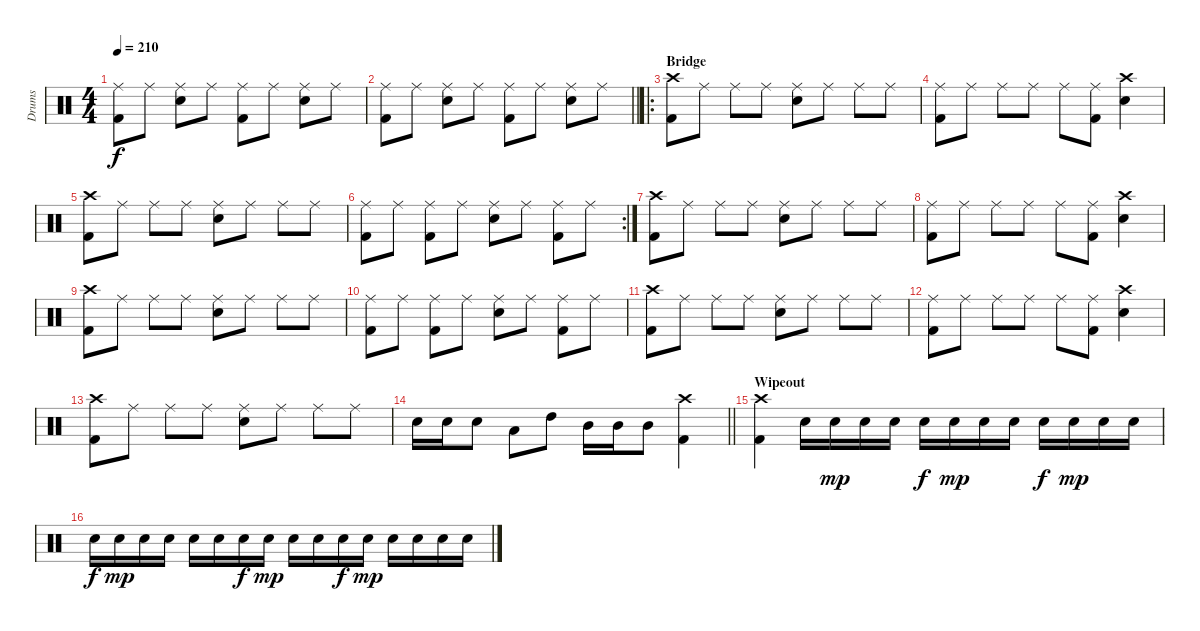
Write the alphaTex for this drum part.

\track ("Drums" "Drums") {instrument percussion}
\staff {score}
\articulation defaults
\ts (4 4)
\tempo 210
\clef neutral
\ks c
("Kick (hit) 2" "Ride (middle)").8{dy f} "Ride (middle)".8 ("Electric Snare (hit)" "Ride (middle)").8 "Ride (middle)".8 ("Kick (hit) 2" "Ride (middle)").8 "Ride (middle)".8 ("Electric Snare (hit)" "Ride (middle)").8 "Ride (middle)".8 |
\barLineRight lightlight
("Kick (hit) 2" "Ride (middle)").8 "Ride (middle)".8 ("Electric Snare (hit)" "Ride (middle)").8 "Ride (middle)".8 ("Kick (hit) 2" "Ride (middle)").8 "Ride (middle)".8 ("Electric Snare (hit)" "Ride (middle)").8 "Ride (middle)".8 |
\ro
\section ("" "Bridge")
("Kick (hit) 2" "Crash high (hit)").8 "Ride (middle)".8 "Ride (middle)".8 "Ride (middle)".8 ("Electric Snare (hit)" "Ride (middle)").8 "Ride (middle)".8 "Ride (middle)".8 "Ride (middle)".8 |
("Kick (hit) 2" "Ride (middle)").8 "Ride (middle)".8 "Ride (middle)".8 "Ride (middle)".8 "Ride (middle)".8 ("Kick (hit) 2" "Ride (middle)").8 ("Electric Snare (hit)" "Crash high (hit)").4 |
("Kick (hit) 2" "Crash high (hit)").8 "Ride (middle)".8 "Ride (middle)".8 "Ride (middle)".8 ("Electric Snare (hit)" "Ride (middle)").8 "Ride (middle)".8 "Ride (middle)".8 "Ride (middle)".8 |
\rc 2
("Kick (hit) 2" "Ride (middle)").8 "Ride (middle)".8 ("Kick (hit) 2" "Ride (middle)").8 "Ride (middle)".8 ("Electric Snare (hit)" "Ride (middle)").8 "Ride (middle)".8 ("Kick (hit) 2" "Ride (middle)").8 "Ride (middle)".8 |
("Kick (hit) 2" "Crash high (hit)").8 "Ride (middle)".8 "Ride (middle)".8 "Ride (middle)".8 ("Electric Snare (hit)" "Ride (middle)").8 "Ride (middle)".8 "Ride (middle)".8 "Ride (middle)".8 |
("Kick (hit) 2" "Ride (middle)").8 "Ride (middle)".8 "Ride (middle)".8 "Ride (middle)".8 "Ride (middle)".8 ("Kick (hit) 2" "Ride (middle)").8 ("Electric Snare (hit)" "Crash high (hit)").4 |
("Kick (hit) 2" "Crash high (hit)").8 "Ride (middle)".8 "Ride (middle)".8 "Ride (middle)".8 ("Electric Snare (hit)" "Ride (middle)").8 "Ride (middle)".8 "Ride (middle)".8 "Ride (middle)".8 |
("Kick (hit) 2" "Ride (middle)").8 "Ride (middle)".8 ("Kick (hit) 2" "Ride (middle)").8 "Ride (middle)".8 ("Electric Snare (hit)" "Ride (middle)").8 "Ride (middle)".8 ("Kick (hit) 2" "Ride (middle)").8 "Ride (middle)".8 |
("Kick (hit) 2" "Crash high (hit)").8 "Ride (middle)".8 "Ride (middle)".8 "Ride (middle)".8 ("Electric Snare (hit)" "Ride (middle)").8 "Ride (middle)".8 "Ride (middle)".8 "Ride (middle)".8 |
("Kick (hit) 2" "Ride (middle)").8 "Ride (middle)".8 "Ride (middle)".8 "Ride (middle)".8 "Ride (middle)".8 ("Kick (hit) 2" "Ride (middle)").8 ("Electric Snare (hit)" "Crash high (hit)").4 |
("Kick (hit) 2" "Crash high (hit)").8 "Ride (middle)".8 "Ride (middle)".8 "Ride (middle)".8 ("Electric Snare (hit)" "Ride (middle)").8 "Ride (middle)".8 "Ride (middle)".8 "Ride (middle)".8 |
\barLineRight lightlight "Electric Snare (hit)".16 "Electric Snare (hit)".16 "Electric Snare (hit)".8 "Low Tom (hit)".8 "High Tom (hit)".8 "Mid Tom (hit)".16 "Mid Tom (hit)".16 "Mid Tom (hit)".8
("Kick (hit) 2" "Crash high (hit)").4 |
\section ("" "Wipeout")
("Kick (hit) 2" "Crash high (hit)").4 "Electric Snare (hit)".16 "Electric Snare (hit)".16{dy mp} "Electric Snare (hit)".16 "Electric Snare (hit)".16 "Electric Snare (hit)".16{dy f} "Electric Snare (hit)".16{dy mp} "Electric Snare (hit)".16 "Electric Snare (hit)".16 "Electric Snare (hit)".16{dy f} "Electric Snare (hit)".16{dy mp} "Electric Snare (hit)".16 "Electric Snare (hit)".16 |
"Electric Snare (hit)".16{dy f} "Electric Snare (hit)".16{dy mp} "Electric Snare (hit)".16 "Electric Snare (hit)".16 "Electric Snare (hit)".16 "Electric Snare (hit)".16 "Electric Snare (hit)".16{dy f} "Electric Snare (hit)".16{dy mp} "Electric Snare (hit)".16 "Electric Snare (hit)".16 "Electric Snare (hit)".16{dy f} "Electric Snare (hit)".16{dy mp} "Electric Snare (hit)".16 "Electric Snare (hit)".16 "Electric Snare (hit)".16 "Electric Snare (hit)".16
